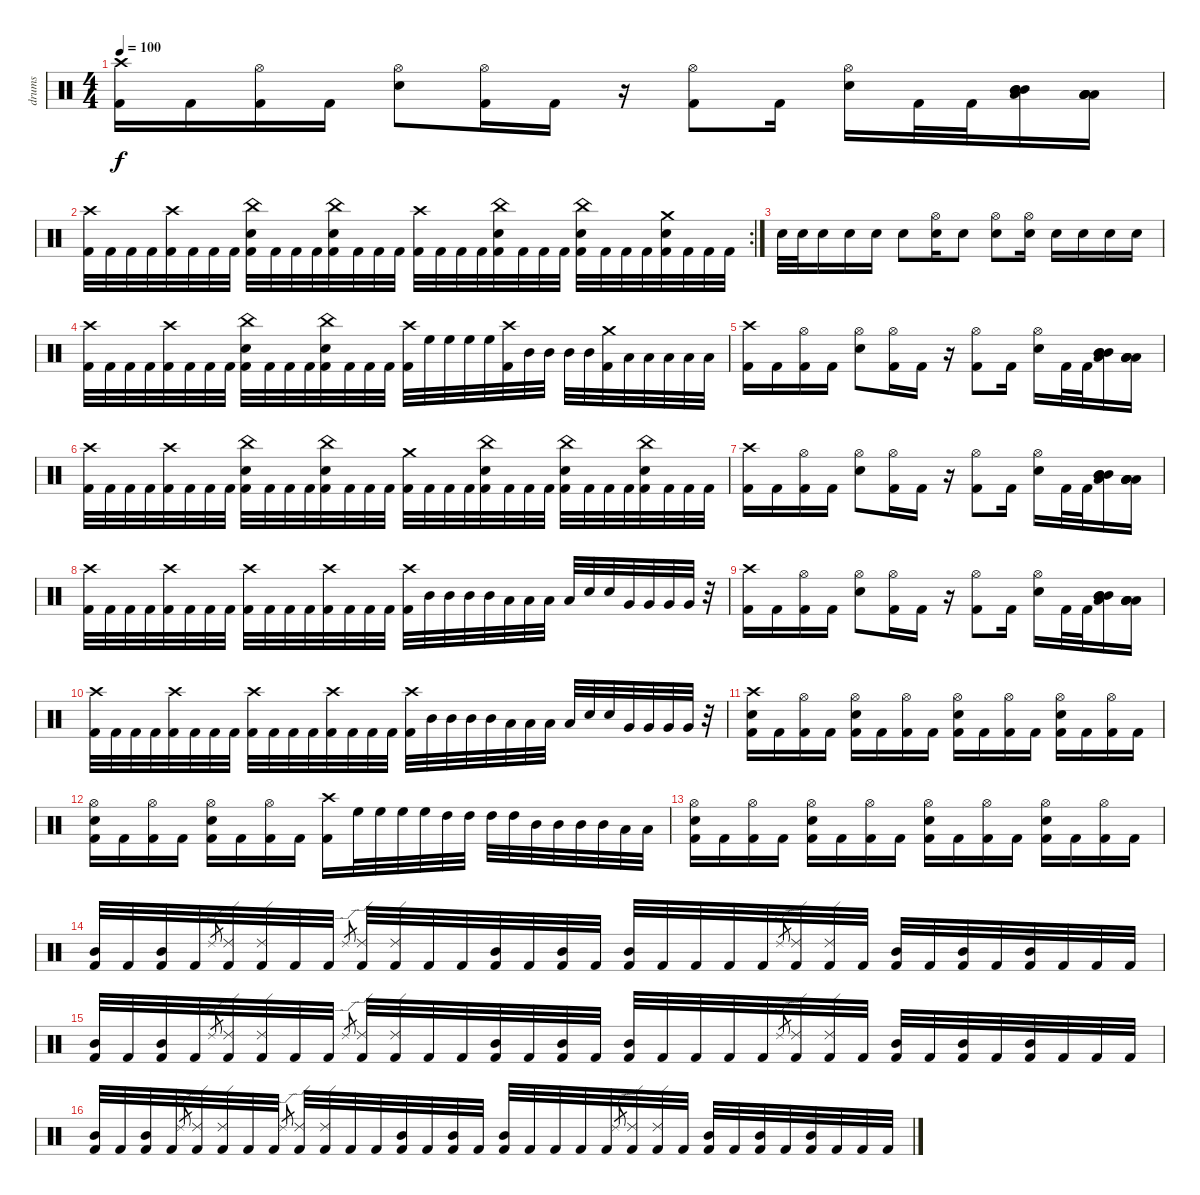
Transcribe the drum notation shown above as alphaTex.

\track ("drums" "drums") {instrument percussion}
\staff {score}
\articulation defaults
\ts (4 4)
\tempo 100
\clef neutral
\ks c
("Crash high (hit)" "Kick (hit) 2").16{dy f} "Kick (hit) 2".16 ("Hi-Hat (open)" "Kick (hit) 2").16 "Kick (hit) 2".16 ("Hi-Hat (open)" "Electric Snare (hit)").8 ("Hi-Hat (open)" "Kick (hit) 2").16 "Kick (hit) 2".16 r.16 ("Hi-Hat (open)" "Kick (hit) 2").8 "Kick (hit) 2".16 ("Hi-Hat (open)" "Electric Snare (hit)").16 "Kick (hit) 2".32 "Kick (hit) 2".32 ("Mid Tom (hit)" "Mid Tom (hit)" "Mid Tom (hit)" "Low Tom (hit)").16 ("Low Tom (hit)" "Low Tom (hit)" "Low Tom (hit)" "Low Tom (hit)").16 |
\rc 2
("Crash high (hit)" "Kick (hit) 2").32 "Kick (hit) 2".32 "Kick (hit) 2".32 "Kick (hit) 2".32 ("Crash high (hit)" "Kick (hit) 2").32 "Kick (hit) 2".32 "Kick (hit) 2".32 "Kick (hit) 2".32 ("China (hit)" "Kick (hit) 2" "Electric Snare (hit)").32 "Kick (hit) 2".32 "Kick (hit) 2".32 "Kick (hit) 2".32 ("China (hit)" "Kick (hit) 2" "Electric Snare (hit)").32 "Kick (hit) 2".32 "Kick (hit) 2".32 "Kick (hit) 2".32 ("Crash high (hit)" "Kick (hit) 2").32 "Kick (hit) 2".32 "Kick (hit) 2".32 "Kick (hit) 2".32 ("Kick (hit) 2" "Electric Snare (hit)" "China (hit)").32 "Kick (hit) 2".32 "Kick (hit) 2".32 "Kick (hit) 2".32 ("Kick (hit) 2" "Electric Snare (hit)" "China (hit)").32 "Kick (hit) 2".32 "Kick (hit) 2".32 "Kick (hit) 2".32 ("Crash medium (hit)" "Kick (hit) 2" "Electric Snare (hit)").32 "Kick (hit) 2".32 "Kick (hit) 2".32 "Kick (hit) 2".32 |
\section ("" "")
"Electric Snare (hit)".32 "Electric Snare (hit)".32 "Electric Snare (hit)".16 "Electric Snare (hit)".16 "Electric Snare (hit)".16 "Electric Snare (hit)".8 ("Hi-Hat (open)" "Electric Snare (hit)").16 "Electric Snare (hit)".8 ("Hi-Hat (open)" "Electric Snare (hit)").8 ("Hi-Hat (open)" "Electric Snare (hit)").16 "Electric Snare (hit)".16 "Electric Snare (hit)".16 "Electric Snare (hit)".16 "Electric Snare (hit)".16 |
("Crash high (hit)" "Kick (hit) 2").32 "Kick (hit) 2".32 "Kick (hit) 2".32 "Kick (hit) 2".32 ("Crash high (hit)" "Kick (hit) 2").32 "Kick (hit) 2".32 "Kick (hit) 2".32 "Kick (hit) 2".32 ("China (hit)" "Electric Snare (hit)" "Kick (hit) 2").32 "Kick (hit) 2".32 "Kick (hit) 2".32 "Kick (hit) 2".32 ("China (hit)" "Electric Snare (hit)" "Kick (hit) 2").32 "Kick (hit) 2".32 "Kick (hit) 2".32 "Kick (hit) 2".32 ("Crash high (hit)" "Kick (hit) 2").32 "High Floor Tom (hit)".32 "High Floor Tom (hit)".32 "High Floor Tom (hit)".32 "High Floor Tom (hit)".32 ("Crash high (hit)" "Kick (hit) 2").32 "Mid Tom (hit)".32 "Mid Tom (hit)".32 "Mid Tom (hit)".32 "Mid Tom (hit)".32 ("Crash medium (hit)" "Kick (hit) 2").32 "Low Tom (hit)".32 "Low Tom (hit)".32 "Low Tom (hit)".32 "Low Tom (hit)".32 "Low Tom (hit)".32 |
("Crash high (hit)" "Kick (hit) 2").16 "Kick (hit) 2".16 ("Hi-Hat (open)" "Kick (hit) 2").16 "Kick (hit) 2".16 ("Hi-Hat (open)" "Electric Snare (hit)").8 ("Hi-Hat (open)" "Kick (hit) 2").16 "Kick (hit) 2".16 r.16 ("Hi-Hat (open)" "Kick (hit) 2").8 "Kick (hit) 2".16 ("Hi-Hat (open)" "Electric Snare (hit)").16 "Kick (hit) 2".32 "Kick (hit) 2".32 ("Mid Tom (hit)" "Mid Tom (hit)" "Mid Tom (hit)" "Low Tom (hit)").16 ("Low Tom (hit)" "Low Tom (hit)" "Low Tom (hit)" "Low Tom (hit)").16 |
("Crash high (hit)" "Kick (hit) 2").32 "Kick (hit) 2".32 "Kick (hit) 2".32 "Kick (hit) 2".32 ("Crash high (hit)" "Kick (hit) 2").32 "Kick (hit) 2".32 "Kick (hit) 2".32 "Kick (hit) 2".32 ("China (hit)" "Electric Snare (hit)" "Kick (hit) 2").32 "Kick (hit) 2".32 "Kick (hit) 2".32 "Kick (hit) 2".32 ("China (hit)" "Electric Snare (hit)" "Kick (hit) 2").32 "Kick (hit) 2".32 "Kick (hit) 2".32 "Kick (hit) 2".32 ("Crash medium (hit)" "Kick (hit) 2").32 "Kick (hit) 2".32 "Kick (hit) 2".32 "Kick (hit) 2".32 ("China (hit)" "Electric Snare (hit)" "Kick (hit) 2").32 "Kick (hit) 2".32 "Kick (hit) 2".32 "Kick (hit) 2".32 ("China (hit)" "Electric Snare (hit)" "Kick (hit) 2").32 "Kick (hit) 2".32 "Kick (hit) 2".32 "Kick (hit) 2".32 ("China (hit)" "Electric Snare (hit)" "Kick (hit) 2").32 "Kick (hit) 2".32 "Kick (hit) 2".32 "Kick (hit) 2".32 |
("Crash high (hit)" "Kick (hit) 2").16 "Kick (hit) 2".16 ("Hi-Hat (open)" "Kick (hit) 2").16 "Kick (hit) 2".16 ("Hi-Hat (open)" "Electric Snare (hit)").8 ("Hi-Hat (open)" "Kick (hit) 2").16 "Kick (hit) 2".16 r.16 ("Hi-Hat (open)" "Kick (hit) 2").8 "Kick (hit) 2".16 ("Hi-Hat (open)" "Electric Snare (hit)").16 "Kick (hit) 2".32 "Kick (hit) 2".32 ("Mid Tom (hit)" "Mid Tom (hit)" "Mid Tom (hit)" "Low Tom (hit)").16 ("Low Tom (hit)" "Low Tom (hit)" "Low Tom (hit)" "Low Tom (hit)").16 |
("Crash high (hit)" "Kick (hit) 2").32 "Kick (hit) 2".32 "Kick (hit) 2".32 "Kick (hit) 2".32 ("Crash high (hit)" "Kick (hit) 2").32 "Kick (hit) 2".32 "Kick (hit) 2".32 "Kick (hit) 2".32 ("Crash high (hit)" "Kick (hit) 2").32 "Kick (hit) 2".32 "Kick (hit) 2".32 "Kick (hit) 2".32 ("Crash high (hit)" "Kick (hit) 2").32 "Kick (hit) 2".32 "Kick (hit) 2".32 "Kick (hit) 2".32 ("Crash high (hit)" "Kick (hit) 2").32 "Mid Tom (hit)".32 "Mid Tom (hit)".32 "Mid Tom (hit)".32 "Mid Tom (hit)".32 "Low Tom (hit)".32 "Low Tom (hit)".32 "Low Tom (hit)".32 "Low Tom (hit)".32 "Electric Snare (hit)".32 "Electric Snare (hit)".32 "Very Low Tom (hit)".32 "Very Low Tom (hit)".32 "Very Low Tom (hit)".32 "Very Low Tom (hit)".32 r.32 |
("Crash high (hit)" "Kick (hit) 2").16 "Kick (hit) 2".16 ("Hi-Hat (open)" "Kick (hit) 2").16 "Kick (hit) 2".16 ("Hi-Hat (open)" "Electric Snare (hit)").8 ("Hi-Hat (open)" "Kick (hit) 2").16 "Kick (hit) 2".16 r.16 ("Hi-Hat (open)" "Kick (hit) 2").8 "Kick (hit) 2".16 ("Hi-Hat (open)" "Electric Snare (hit)").16 "Kick (hit) 2".32 "Kick (hit) 2".32 ("Mid Tom (hit)" "Mid Tom (hit)" "Mid Tom (hit)" "Low Tom (hit)").16 ("Low Tom (hit)" "Low Tom (hit)" "Low Tom (hit)" "Low Tom (hit)").16 |
("Crash high (hit)" "Kick (hit) 2").32 "Kick (hit) 2".32 "Kick (hit) 2".32 "Kick (hit) 2".32 ("Crash high (hit)" "Kick (hit) 2").32 "Kick (hit) 2".32 "Kick (hit) 2".32 "Kick (hit) 2".32 ("Crash high (hit)" "Kick (hit) 2").32 "Kick (hit) 2".32 "Kick (hit) 2".32 "Kick (hit) 2".32 ("Crash high (hit)" "Kick (hit) 2").32 "Kick (hit) 2".32 "Kick (hit) 2".32 "Kick (hit) 2".32 ("Crash high (hit)" "Kick (hit) 2").32 "Mid Tom (hit)".32 "Mid Tom (hit)".32 "Mid Tom (hit)".32 "Mid Tom (hit)".32 "Low Tom (hit)".32 "Low Tom (hit)".32 "Low Tom (hit)".32 "Low Tom (hit)".32 "Electric Snare (hit)".32 "Electric Snare (hit)".32 "Very Low Tom (hit)".32 "Very Low Tom (hit)".32 "Very Low Tom (hit)".32 "Very Low Tom (hit)".32 r.32 |
\section ("" "")
("Crash high (hit)" "Electric Snare (hit)" "Kick (hit) 2").16 "Kick (hit) 2".16 ("Hi-Hat (open)" "Kick (hit) 2").16 "Kick (hit) 2".16 ("Hi-Hat (open)" "Electric Snare (hit)" "Kick (hit) 2").16 "Kick (hit) 2".16 ("Hi-Hat (open)" "Kick (hit) 2").16 "Kick (hit) 2".16 ("Hi-Hat (open)" "Electric Snare (hit)" "Kick (hit) 2").16 "Kick (hit) 2".16 ("Hi-Hat (open)" "Kick (hit) 2").16 "Kick (hit) 2".16 ("Hi-Hat (open)" "Electric Snare (hit)" "Kick (hit) 2").16 "Kick (hit) 2".16 ("Hi-Hat (open)" "Kick (hit) 2").16 "Kick (hit) 2".16 |
("Hi-Hat (open)" "Electric Snare (hit)" "Kick (hit) 2").16 "Kick (hit) 2".16 ("Hi-Hat (open)" "Kick (hit) 2").16 "Kick (hit) 2".16 ("Hi-Hat (open)" "Electric Snare (hit)" "Kick (hit) 2").16 "Kick (hit) 2".16 ("Hi-Hat (open)" "Kick (hit) 2").16 "Kick (hit) 2".16 ("Crash high (hit)" "Kick (hit) 2").16 "High Floor Tom (hit)".32 "High Floor Tom (hit)".32 "High Floor Tom (hit)".32 "High Floor Tom (hit)".32 "High Tom (hit)".32 "High Tom (hit)".32 "High Tom (hit)".32 "High Tom (hit)".32 "Mid Tom (hit)".32 "Mid Tom (hit)".32 "Mid Tom (hit)".32 "Mid Tom (hit)".32 "Low Tom (hit)".32 "Low Tom (hit)".32 |
("Hi-Hat (open)" "Electric Snare (hit)" "Kick (hit) 2").16 "Kick (hit) 2".16 ("Hi-Hat (open)" "Kick (hit) 2").16 "Kick (hit) 2".16 ("Hi-Hat (open)" "Electric Snare (hit)" "Kick (hit) 2").16 "Kick (hit) 2".16 ("Hi-Hat (open)" "Kick (hit) 2").16 "Kick (hit) 2".16 ("Hi-Hat (open)" "Electric Snare (hit)" "Kick (hit) 2").16 "Kick (hit) 2".16 ("Hi-Hat (open)" "Kick (hit) 2").16 "Kick (hit) 2".16 ("Hi-Hat (open)" "Electric Snare (hit)" "Kick (hit) 2").16 "Kick (hit) 2".16 ("Hi-Hat (open)" "Kick (hit) 2").16 "Kick (hit) 2".16 |
("Kick (hit) 2" "Mid Tom (hit)").32 "Kick (hit) 2".32 ("Kick (hit) 2" "Mid Tom (hit)").32 "Kick (hit) 2".32 "Ride (edge) 2".8{gr} ("Kick (hit) 2" "Ride (edge) 2").32 ("Kick (hit) 2" "Ride (edge) 2").32 "Kick (hit) 2".32 "Kick (hit) 2".32 "Ride (edge) 2".8{gr} ("Kick (hit) 2" "Ride (edge) 2").32 ("Kick (hit) 2" "Ride (edge) 2").32 "Kick (hit) 2".32 "Kick (hit) 2".32 ("Kick (hit) 2" "Mid Tom (hit)").32 "Kick (hit) 2".32 ("Kick (hit) 2" "Mid Tom (hit)").32 "Kick (hit) 2".32 ("Kick (hit) 2" "Mid Tom (hit)").32 "Kick (hit) 2".32 "Kick (hit) 2".32 "Kick (hit) 2".32 "Kick (hit) 2".32 "Ride (edge) 2".8{gr} ("Kick (hit) 2" "Ride (edge) 2").32 ("Kick (hit) 2" "Ride (edge) 2").32 "Kick (hit) 2".32 ("Kick (hit) 2" "Mid Tom (hit)").32 "Kick (hit) 2".32 ("Kick (hit) 2" "Mid Tom (hit)").32 "Kick (hit) 2".32 ("Kick (hit) 2" "Mid Tom (hit)").32 "Kick (hit) 2".32 "Kick (hit) 2".32 "Kick (hit) 2".32 |
("Kick (hit) 2" "Mid Tom (hit)").32 "Kick (hit) 2".32 ("Kick (hit) 2" "Mid Tom (hit)").32 "Kick (hit) 2".32 "Ride (edge) 2".8{gr} ("Kick (hit) 2" "Ride (edge) 2").32 ("Kick (hit) 2" "Ride (edge) 2").32 "Kick (hit) 2".32 "Kick (hit) 2".32 "Ride (edge) 2".8{gr} ("Kick (hit) 2" "Ride (edge) 2").32 ("Kick (hit) 2" "Ride (edge) 2").32 "Kick (hit) 2".32 "Kick (hit) 2".32 ("Kick (hit) 2" "Mid Tom (hit)").32 "Kick (hit) 2".32 ("Kick (hit) 2" "Mid Tom (hit)").32 "Kick (hit) 2".32 ("Kick (hit) 2" "Mid Tom (hit)").32 "Kick (hit) 2".32 "Kick (hit) 2".32 "Kick (hit) 2".32 "Kick (hit) 2".32 "Ride (edge) 2".8{gr} ("Kick (hit) 2" "Ride (edge) 2").32 ("Kick (hit) 2" "Ride (edge) 2").32 "Kick (hit) 2".32 ("Kick (hit) 2" "Mid Tom (hit)").32 "Kick (hit) 2".32 ("Kick (hit) 2" "Mid Tom (hit)").32 "Kick (hit) 2".32 ("Kick (hit) 2" "Mid Tom (hit)").32 "Kick (hit) 2".32 "Kick (hit) 2".32 "Kick (hit) 2".32 |
("Kick (hit) 2" "Mid Tom (hit)").32 "Kick (hit) 2".32 ("Kick (hit) 2" "Mid Tom (hit)").32 "Kick (hit) 2".32 "Ride (edge) 2".8{gr} ("Kick (hit) 2" "Ride (edge) 2").32 ("Kick (hit) 2" "Ride (edge) 2").32 "Kick (hit) 2".32 "Kick (hit) 2".32 "Ride (edge) 2".8{gr} ("Kick (hit) 2" "Ride (edge) 2").32 ("Kick (hit) 2" "Ride (edge) 2").32 "Kick (hit) 2".32 "Kick (hit) 2".32 ("Kick (hit) 2" "Mid Tom (hit)").32 "Kick (hit) 2".32 ("Kick (hit) 2" "Mid Tom (hit)").32 "Kick (hit) 2".32 ("Kick (hit) 2" "Mid Tom (hit)").32 "Kick (hit) 2".32 "Kick (hit) 2".32 "Kick (hit) 2".32 "Kick (hit) 2".32 "Ride (edge) 2".8{gr} ("Kick (hit) 2" "Ride (edge) 2").32 ("Kick (hit) 2" "Ride (edge) 2").32 "Kick (hit) 2".32 ("Kick (hit) 2" "Mid Tom (hit)").32 "Kick (hit) 2".32 ("Kick (hit) 2" "Mid Tom (hit)").32 "Kick (hit) 2".32 ("Kick (hit) 2" "Mid Tom (hit)").32 "Kick (hit) 2".32 "Kick (hit) 2".32 "Kick (hit) 2".32
